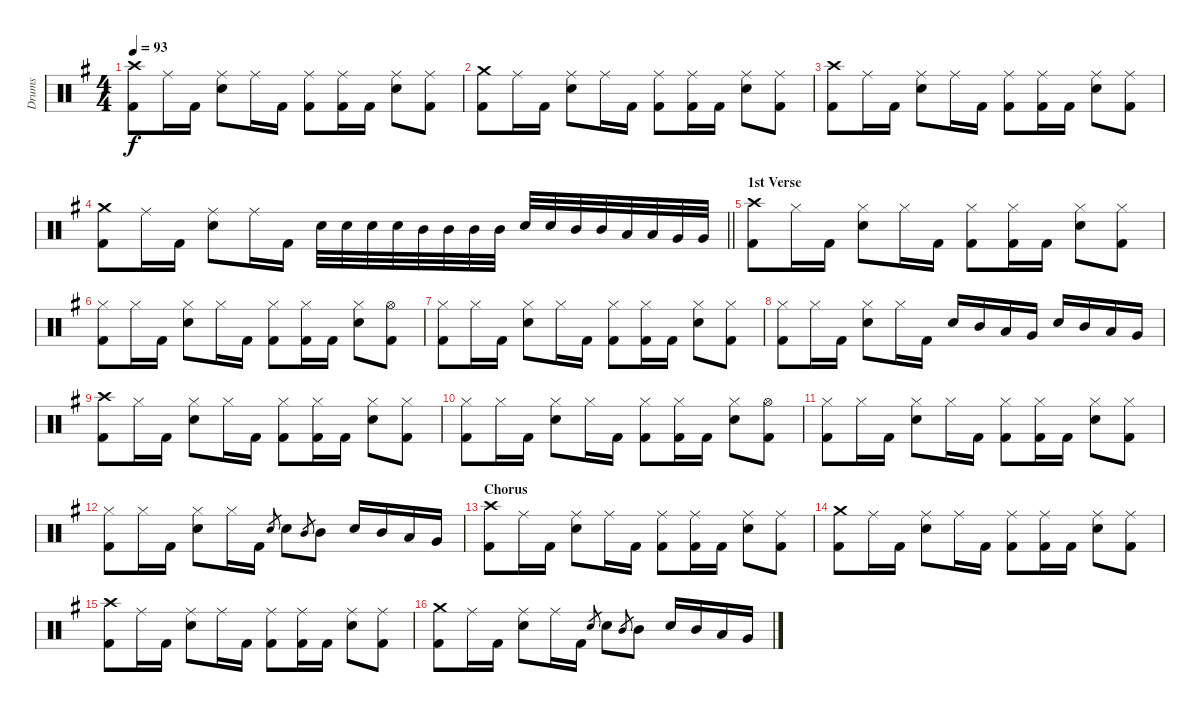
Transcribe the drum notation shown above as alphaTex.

\track ("Drums" "Drums") {instrument percussion}
\staff {score}
\articulation defaults
\ts (4 4)
\tempo 93
\clef neutral
\ks eminor
("Crash high (hit)" "Kick (hit) 2").8{dy f} "Ride (middle)".16 "Kick (hit) 2".16 ("Ride (middle)" "Snare (hit) 2").8 "Ride (middle)".16 "Kick (hit) 2".16 ("Ride (middle)" "Kick (hit) 2").8 ("Ride (middle)" "Kick (hit) 2").16 "Kick (hit) 2".16 ("Ride (middle)" "Snare (hit) 2").8 ("Ride (middle)" "Kick (hit) 2").8 |
("Crash medium (hit)" "Kick (hit) 2").8 "Ride (middle)".16 "Kick (hit) 2".16 ("Ride (middle)" "Snare (hit) 2").8 "Ride (middle)".16 "Kick (hit) 2".16 ("Ride (middle)" "Kick (hit) 2").8 ("Ride (middle)" "Kick (hit) 2").16 "Kick (hit) 2".16 ("Ride (middle)" "Snare (hit) 2").8 ("Ride (middle)" "Kick (hit) 2").8 |
("Crash high (hit)" "Kick (hit) 2").8 "Ride (middle)".16 "Kick (hit) 2".16 ("Ride (middle)" "Snare (hit) 2").8 "Ride (middle)".16 "Kick (hit) 2".16 ("Ride (middle)" "Kick (hit) 2").8 ("Ride (middle)" "Kick (hit) 2").16 "Kick (hit) 2".16 ("Ride (middle)" "Snare (hit) 2").8 ("Ride (middle)" "Kick (hit) 2").8 |
\barLineRight lightlight
("Crash medium (hit)" "Kick (hit) 2").8 "Ride (middle)".16 "Kick (hit) 2".16 ("Ride (middle)" "Snare (hit) 2").8 "Ride (middle)".16 "Kick (hit) 2".16 "Snare (hit) 2".32 "Snare (hit) 2".32 "Snare (hit) 2".32 "Snare (hit) 2".32 "Mid Tom (hit)".32 "Mid Tom (hit)".32 "Mid Tom (hit)".32 "Mid Tom (hit)".32 "Snare (hit) 2".32 "Snare (hit) 2".32 "Mid Tom (hit)".32 "Mid Tom (hit)".32 "Low Tom (hit)".32 "Low Tom (hit)".32 "Very Low Tom (hit)".32 "Very Low Tom (hit)".32 |
\section ("" "1st Verse")
("Crash high (hit)" "Kick (hit) 2").8 "Hi-Hat (closed)".16 "Kick (hit) 2".16 ("Hi-Hat (closed)" "Snare (hit) 2").8 "Hi-Hat (closed)".16 "Kick (hit) 2".16 ("Hi-Hat (closed)" "Kick (hit) 2").8 ("Hi-Hat (closed)" "Kick (hit) 2").16 "Kick (hit) 2".16 ("Hi-Hat (closed)" "Snare (hit) 2").8 ("Hi-Hat (closed)" "Kick (hit) 2").8 |
("Hi-Hat (closed)" "Kick (hit) 2").8 "Hi-Hat (closed)".16 "Kick (hit) 2".16 ("Hi-Hat (closed)" "Snare (hit) 2").8 "Hi-Hat (closed)".16 "Kick (hit) 2".16 ("Hi-Hat (closed)" "Kick (hit) 2").8 ("Hi-Hat (closed)" "Kick (hit) 2").16 "Kick (hit) 2".16 ("Hi-Hat (closed)" "Snare (hit) 2").8 ("Hi-Hat (open)" "Kick (hit) 2").8 |
("Hi-Hat (closed)" "Kick (hit) 2").8 "Hi-Hat (closed)".16 "Kick (hit) 2".16 ("Hi-Hat (closed)" "Snare (hit) 2").8 "Hi-Hat (closed)".16 "Kick (hit) 2".16 ("Hi-Hat (closed)" "Kick (hit) 2").8 ("Hi-Hat (closed)" "Kick (hit) 2").16 "Kick (hit) 2".16 ("Hi-Hat (closed)" "Snare (hit) 2").8 ("Hi-Hat (closed)" "Kick (hit) 2").8 |
("Hi-Hat (closed)" "Kick (hit) 2").8 "Hi-Hat (closed)".16 "Kick (hit) 2".16 ("Hi-Hat (closed)" "Snare (hit) 2").8 "Hi-Hat (closed)".16 "Kick (hit) 2".16 "Snare (hit) 2".16 "Mid Tom (hit)".16 "Low Tom (hit)".16 "Very Low Tom (hit)".16 "Snare (hit) 2".16 "Mid Tom (hit)".16 "Low Tom (hit)".16 "Very Low Tom (hit)".16 |
("Crash high (hit)" "Kick (hit) 2").8 "Hi-Hat (closed)".16 "Kick (hit) 2".16 ("Hi-Hat (closed)" "Snare (hit) 2").8 "Hi-Hat (closed)".16 "Kick (hit) 2".16 ("Hi-Hat (closed)" "Kick (hit) 2").8 ("Hi-Hat (closed)" "Kick (hit) 2").16 "Kick (hit) 2".16 ("Hi-Hat (closed)" "Snare (hit) 2").8 ("Hi-Hat (closed)" "Kick (hit) 2").8 |
("Hi-Hat (closed)" "Kick (hit) 2").8 "Hi-Hat (closed)".16 "Kick (hit) 2".16 ("Hi-Hat (closed)" "Snare (hit) 2").8 "Hi-Hat (closed)".16 "Kick (hit) 2".16 ("Hi-Hat (closed)" "Kick (hit) 2").8 ("Hi-Hat (closed)" "Kick (hit) 2").16 "Kick (hit) 2".16 ("Hi-Hat (closed)" "Snare (hit) 2").8 ("Hi-Hat (open)" "Kick (hit) 2").8 |
("Hi-Hat (closed)" "Kick (hit) 2").8 "Hi-Hat (closed)".16 "Kick (hit) 2".16 ("Hi-Hat (closed)" "Snare (hit) 2").8 "Hi-Hat (closed)".16 "Kick (hit) 2".16 ("Hi-Hat (closed)" "Kick (hit) 2").8 ("Hi-Hat (closed)" "Kick (hit) 2").16 "Kick (hit) 2".16 ("Hi-Hat (closed)" "Snare (hit) 2").8 ("Hi-Hat (closed)" "Kick (hit) 2").8 |
("Hi-Hat (closed)" "Kick (hit) 2").8 "Hi-Hat (closed)".16 "Kick (hit) 2".16 ("Hi-Hat (closed)" "Snare (hit) 2").8 "Hi-Hat (closed)".16 "Kick (hit) 2".16 "Snare (hit) 2".8{gr} "Snare (hit) 2".8 "Mid Tom (hit)".8{gr} "Mid Tom (hit)".8 "Snare (hit) 2".16 "Mid Tom (hit)".16 "Low Tom (hit)".16 "Very Low Tom (hit)".16 |
\section ("" "Chorus")
("Crash high (hit)" "Kick (hit) 2").8 "Ride (middle)".16 "Kick (hit) 2".16 ("Ride (middle)" "Snare (hit) 2").8 "Ride (middle)".16 "Kick (hit) 2".16 ("Ride (middle)" "Kick (hit) 2").8 ("Ride (middle)" "Kick (hit) 2").16 "Kick (hit) 2".16 ("Ride (middle)" "Snare (hit) 2").8 ("Ride (middle)" "Kick (hit) 2").8 |
("Crash medium (hit)" "Kick (hit) 2").8 "Ride (middle)".16 "Kick (hit) 2".16 ("Ride (middle)" "Snare (hit) 2").8 "Ride (middle)".16 "Kick (hit) 2".16 ("Ride (middle)" "Kick (hit) 2").8 ("Ride (middle)" "Kick (hit) 2").16 "Kick (hit) 2".16 ("Ride (middle)" "Snare (hit) 2").8 ("Ride (middle)" "Kick (hit) 2").8 |
("Crash high (hit)" "Kick (hit) 2").8 "Ride (middle)".16 "Kick (hit) 2".16 ("Ride (middle)" "Snare (hit) 2").8 "Ride (middle)".16 "Kick (hit) 2".16 ("Ride (middle)" "Kick (hit) 2").8 ("Ride (middle)" "Kick (hit) 2").16 "Kick (hit) 2".16 ("Ride (middle)" "Snare (hit) 2").8 ("Ride (middle)" "Kick (hit) 2").8 |
("Crash medium (hit)" "Kick (hit) 2").8 "Ride (middle)".16 "Kick (hit) 2".16 ("Ride (middle)" "Snare (hit) 2").8 "Ride (middle)".16 "Kick (hit) 2".16 "Snare (hit) 2".8{gr} "Snare (hit) 2".8 "Mid Tom (hit)".8{gr} "Mid Tom (hit)".8 "Snare (hit) 2".16 "Mid Tom (hit)".16 "Low Tom (hit)".16 "Very Low Tom (hit)".16
